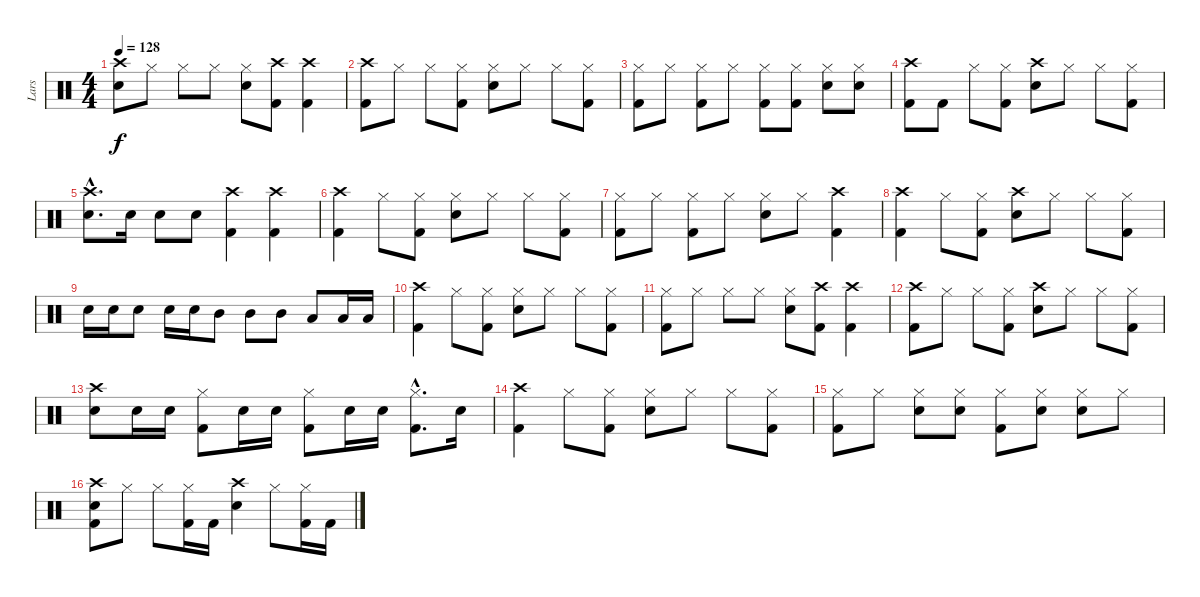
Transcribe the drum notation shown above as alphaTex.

\track ("Lars" "Lars") {instrument percussion}
\staff {score}
\articulation defaults
\ts (4 4)
\tempo 128
\clef neutral
\ks c
("Crash high (hit)" "Electric Snare (hit)").8{dy f} "Hi-Hat (closed)".8 "Hi-Hat (closed)".8 "Hi-Hat (closed)".8 ("Hi-Hat (closed)" "Electric Snare (hit)").8 ("Crash high (hit)" "Kick (hit) 2").8 ("Crash high (hit)" "Kick (hit) 2").4 |
("Crash high (hit)" "Kick (hit) 2").8 "Hi-Hat (closed)".8 "Hi-Hat (closed)".8 ("Hi-Hat (closed)" "Kick (hit) 2").8 ("Hi-Hat (closed)" "Electric Snare (hit)").8 "Hi-Hat (closed)".8 "Hi-Hat (closed)".8 ("Hi-Hat (closed)" "Kick (hit) 2").8 |
("Hi-Hat (closed)" "Kick (hit) 2").8 "Hi-Hat (closed)".8 ("Hi-Hat (closed)" "Kick (hit) 2").8 "Hi-Hat (closed)".8 ("Hi-Hat (closed)" "Kick (hit) 2").8 ("Hi-Hat (closed)" "Kick (hit) 2").8 ("Hi-Hat (closed)" "Electric Snare (hit)").8 ("Hi-Hat (closed)" "Electric Snare (hit)").8 |
("Crash high (hit)" "Kick (hit) 2").8 "Kick (hit) 2".8 "Hi-Hat (closed)".8 ("Hi-Hat (closed)" "Kick (hit) 2").8 ("Crash high (hit)" "Electric Snare (hit)").8 "Hi-Hat (closed)".8 "Hi-Hat (closed)".8 ("Hi-Hat (closed)" "Kick (hit) 2").8 |
("Crash high (hit)"{hac} "Electric Snare (hit)"{hac}).8{d} "Electric Snare (hit)".16 "Electric Snare (hit)".8 "Electric Snare (hit)".8 ("Crash high (hit)" "Kick (hit) 2").4 ("Crash high (hit)" "Kick (hit) 2").4 |
("Crash high (hit)" "Kick (hit) 2").4 "Hi-Hat (closed)".8 ("Hi-Hat (closed)" "Kick (hit) 2").8 ("Hi-Hat (closed)" "Electric Snare (hit)").8 "Hi-Hat (closed)".8 "Hi-Hat (closed)".8 ("Hi-Hat (closed)" "Kick (hit) 2").8 |
("Hi-Hat (closed)" "Kick (hit) 2").8 "Hi-Hat (closed)".8 ("Hi-Hat (closed)" "Kick (hit) 2").8 "Hi-Hat (closed)".8 ("Hi-Hat (closed)" "Electric Snare (hit)").8 "Hi-Hat (closed)".8 ("Crash high (hit)" "Kick (hit) 2").4 |
("Crash high (hit)" "Kick (hit) 2").4 "Hi-Hat (closed)".8 ("Hi-Hat (closed)" "Kick (hit) 2").8 ("Crash high (hit)" "Electric Snare (hit)").8 "Hi-Hat (closed)".8 "Hi-Hat (closed)".8 ("Hi-Hat (closed)" "Kick (hit) 2").8 |
"Electric Snare (hit)".16 "Electric Snare (hit)".16 "Electric Snare (hit)".8 "Electric Snare (hit)".16 "Electric Snare (hit)".16 "Mid Tom (hit)".8 "Mid Tom (hit)".8 "Mid Tom (hit)".8 "Low Tom (hit)".8 "Low Tom (hit)".16 "Low Tom (hit)".16 |
("Crash high (hit)" "Kick (hit) 2").4 "Hi-Hat (closed)".8 ("Hi-Hat (closed)" "Kick (hit) 2").8 ("Hi-Hat (closed)" "Electric Snare (hit)").8 "Hi-Hat (closed)".8 "Hi-Hat (closed)".8 ("Hi-Hat (closed)" "Kick (hit) 2").8 |
("Hi-Hat (closed)" "Kick (hit) 2").8 "Hi-Hat (closed)".8 "Hi-Hat (closed)".8 "Hi-Hat (closed)".8 ("Hi-Hat (closed)" "Electric Snare (hit)").8 ("Crash high (hit)" "Kick (hit) 2").8 ("Crash high (hit)" "Kick (hit) 2").4 |
("Crash high (hit)" "Kick (hit) 2").8 "Hi-Hat (closed)".8 "Hi-Hat (closed)".8 ("Hi-Hat (closed)" "Kick (hit) 2").8 ("Crash high (hit)" "Electric Snare (hit)").8 "Hi-Hat (closed)".8 "Hi-Hat (closed)".8 ("Hi-Hat (closed)" "Kick (hit) 2").8 |
("Crash high (hit)" "Electric Snare (hit)").8 "Electric Snare (hit)".16 "Electric Snare (hit)".16 ("Hi-Hat (closed)" "Kick (hit) 2").8 "Electric Snare (hit)".16 "Electric Snare (hit)".16 ("Hi-Hat (closed)" "Kick (hit) 2").8 "Electric Snare (hit)".16 "Electric Snare (hit)".16 ("Hi-Hat (closed)"{hac} "Kick (hit) 2"{hac}).8{d} "Electric Snare (hit)".16 |
("Crash high (hit)" "Kick (hit) 2").4 "Hi-Hat (closed)".8 ("Hi-Hat (closed)" "Kick (hit) 2").8 ("Hi-Hat (closed)" "Electric Snare (hit)").8 "Hi-Hat (closed)".8 "Hi-Hat (closed)".8 ("Hi-Hat (closed)" "Kick (hit) 2").8 |
("Hi-Hat (closed)" "Kick (hit) 2").8 "Hi-Hat (closed)".8 ("Hi-Hat (closed)" "Electric Snare (hit)").8 ("Hi-Hat (closed)" "Electric Snare (hit)").8 ("Hi-Hat (closed)" "Kick (hit) 2").8 ("Hi-Hat (closed)" "Electric Snare (hit)").8 ("Hi-Hat (closed)" "Electric Snare (hit)").8 "Hi-Hat (closed)".8 |
("Crash high (hit)" "Electric Snare (hit)" "Kick (hit) 2").8 "Hi-Hat (closed)".8 "Hi-Hat (closed)".8 ("Hi-Hat (closed)" "Kick (hit) 2").16 "Kick (hit) 2".16 ("Crash high (hit)" "Electric Snare (hit)").4 "Hi-Hat (closed)".8 ("Hi-Hat (closed)" "Kick (hit) 2").16 "Kick (hit) 2".16
